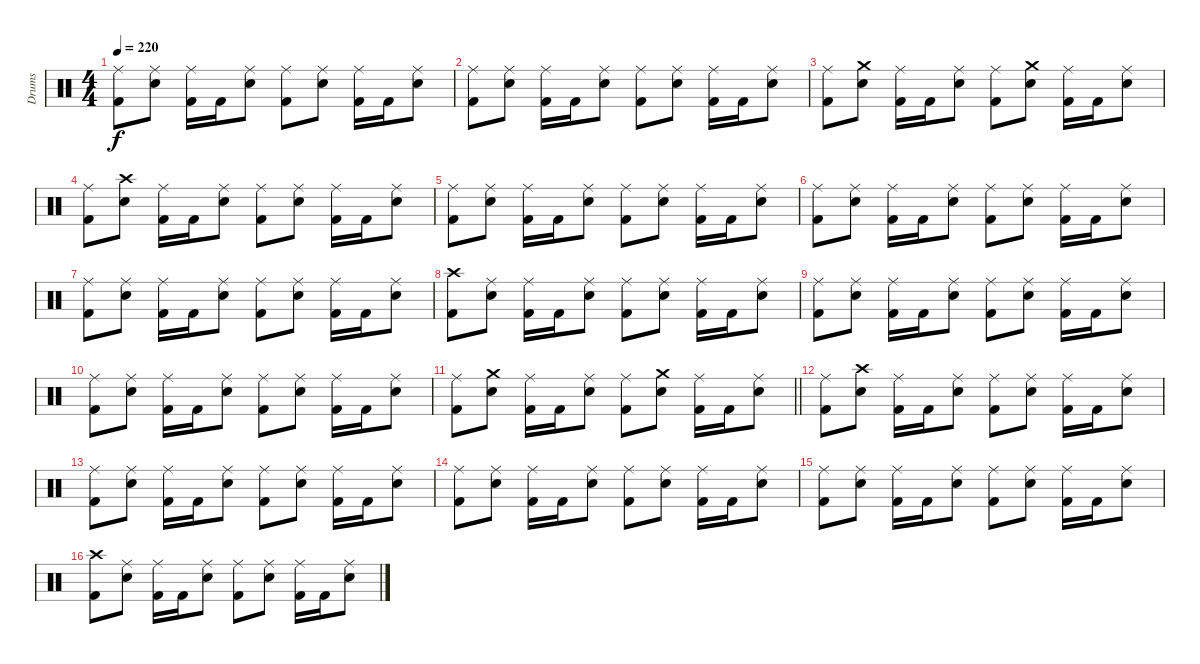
\track ("Drums" "Drums") {instrument percussion}
\staff {score}
\articulation defaults
\ts (4 4)
\tempo 220
\clef neutral
\ks c
("Ride (middle)" "Kick (hit) 2").8{dy f} ("Ride (middle)" "Snare (hit) 2").8 ("Ride (middle)" "Kick (hit) 2").16 "Kick (hit) 2".16 ("Ride (middle)" "Snare (hit) 2").8 ("Ride (middle)" "Kick (hit) 2").8 ("Ride (middle)" "Snare (hit) 2").8 ("Ride (middle)" "Kick (hit) 2").16 "Kick (hit) 2".16 ("Ride (middle)" "Snare (hit) 2").8 |
("Ride (middle)" "Kick (hit) 2").8 ("Ride (middle)" "Snare (hit) 2").8 ("Ride (middle)" "Kick (hit) 2").16 "Kick (hit) 2".16 ("Ride (middle)" "Snare (hit) 2").8 ("Ride (middle)" "Kick (hit) 2").8 ("Ride (middle)" "Snare (hit) 2").8 ("Ride (middle)" "Kick (hit) 2").16 "Kick (hit) 2".16 ("Ride (middle)" "Snare (hit) 2").8 |
("Ride (middle)" "Kick (hit) 2").8 ("Crash medium (hit)" "Snare (hit) 2").8 ("Ride (middle)" "Kick (hit) 2").16 "Kick (hit) 2".16 ("Ride (middle)" "Snare (hit) 2").8 ("Ride (middle)" "Kick (hit) 2").8 ("Crash medium (hit)" "Snare (hit) 2").8 ("Ride (middle)" "Kick (hit) 2").16 "Kick (hit) 2".16 ("Ride (middle)" "Snare (hit) 2").8 |
("Ride (middle)" "Kick (hit) 2").8 ("Crash high (hit)" "Snare (hit) 2").8 ("Ride (middle)" "Kick (hit) 2").16 "Kick (hit) 2".16 ("Ride (middle)" "Snare (hit) 2").8 ("Ride (middle)" "Kick (hit) 2").8 ("Ride (middle)" "Snare (hit) 2").8 ("Ride (middle)" "Kick (hit) 2").16 "Kick (hit) 2".16 ("Ride (middle)" "Snare (hit) 2").8 |
("Ride (middle)" "Kick (hit) 2").8 ("Ride (middle)" "Snare (hit) 2").8 ("Ride (middle)" "Kick (hit) 2").16 "Kick (hit) 2".16 ("Ride (middle)" "Snare (hit) 2").8 ("Ride (middle)" "Kick (hit) 2").8 ("Ride (middle)" "Snare (hit) 2").8 ("Ride (middle)" "Kick (hit) 2").16 "Kick (hit) 2".16 ("Ride (middle)" "Snare (hit) 2").8 |
("Ride (middle)" "Kick (hit) 2").8 ("Ride (middle)" "Snare (hit) 2").8 ("Ride (middle)" "Kick (hit) 2").16 "Kick (hit) 2".16 ("Ride (middle)" "Snare (hit) 2").8 ("Ride (middle)" "Kick (hit) 2").8 ("Ride (middle)" "Snare (hit) 2").8 ("Ride (middle)" "Kick (hit) 2").16 "Kick (hit) 2".16 ("Ride (middle)" "Snare (hit) 2").8 |
("Ride (middle)" "Kick (hit) 2").8 ("Ride (middle)" "Snare (hit) 2").8 ("Ride (middle)" "Kick (hit) 2").16 "Kick (hit) 2".16 ("Ride (middle)" "Snare (hit) 2").8 ("Ride (middle)" "Kick (hit) 2").8 ("Ride (middle)" "Snare (hit) 2").8 ("Ride (middle)" "Kick (hit) 2").16 "Kick (hit) 2".16 ("Ride (middle)" "Snare (hit) 2").8 |
("Crash high (hit)" "Kick (hit) 2").8 ("Ride (middle)" "Snare (hit) 2").8 ("Ride (middle)" "Kick (hit) 2").16 "Kick (hit) 2".16 ("Ride (middle)" "Snare (hit) 2").8 ("Ride (middle)" "Kick (hit) 2").8 ("Ride (middle)" "Snare (hit) 2").8 ("Ride (middle)" "Kick (hit) 2").16 "Kick (hit) 2".16 ("Ride (middle)" "Snare (hit) 2").8 |
("Ride (middle)" "Kick (hit) 2").8 ("Ride (middle)" "Snare (hit) 2").8 ("Ride (middle)" "Kick (hit) 2").16 "Kick (hit) 2".16 ("Ride (middle)" "Snare (hit) 2").8 ("Ride (middle)" "Kick (hit) 2").8 ("Ride (middle)" "Snare (hit) 2").8 ("Ride (middle)" "Kick (hit) 2").16 "Kick (hit) 2".16 ("Ride (middle)" "Snare (hit) 2").8 |
("Ride (middle)" "Kick (hit) 2").8 ("Ride (middle)" "Snare (hit) 2").8 ("Ride (middle)" "Kick (hit) 2").16 "Kick (hit) 2".16 ("Ride (middle)" "Snare (hit) 2").8 ("Ride (middle)" "Kick (hit) 2").8 ("Ride (middle)" "Snare (hit) 2").8 ("Ride (middle)" "Kick (hit) 2").16 "Kick (hit) 2".16 ("Ride (middle)" "Snare (hit) 2").8 |
\barLineRight lightlight
("Ride (middle)" "Kick (hit) 2").8 ("Crash medium (hit)" "Snare (hit) 2").8 ("Ride (middle)" "Kick (hit) 2").16 "Kick (hit) 2".16 ("Ride (middle)" "Snare (hit) 2").8 ("Ride (middle)" "Kick (hit) 2").8 ("Crash medium (hit)" "Snare (hit) 2").8 ("Ride (middle)" "Kick (hit) 2").16 "Kick (hit) 2".16 ("Ride (middle)" "Snare (hit) 2").8 |
\section ("" "")
("Ride (middle)" "Kick (hit) 2").8 ("Crash high (hit)" "Snare (hit) 2").8 ("Ride (middle)" "Kick (hit) 2").16 "Kick (hit) 2".16 ("Ride (middle)" "Snare (hit) 2").8 ("Ride (middle)" "Kick (hit) 2").8 ("Ride (middle)" "Snare (hit) 2").8 ("Ride (middle)" "Kick (hit) 2").16 "Kick (hit) 2".16 ("Ride (middle)" "Snare (hit) 2").8 |
("Ride (middle)" "Kick (hit) 2").8 ("Ride (middle)" "Snare (hit) 2").8 ("Ride (middle)" "Kick (hit) 2").16 "Kick (hit) 2".16 ("Ride (middle)" "Snare (hit) 2").8 ("Ride (middle)" "Kick (hit) 2").8 ("Ride (middle)" "Snare (hit) 2").8 ("Ride (middle)" "Kick (hit) 2").16 "Kick (hit) 2".16 ("Ride (middle)" "Snare (hit) 2").8 |
("Ride (middle)" "Kick (hit) 2").8 ("Ride (middle)" "Snare (hit) 2").8 ("Ride (middle)" "Kick (hit) 2").16 "Kick (hit) 2".16 ("Ride (middle)" "Snare (hit) 2").8 ("Ride (middle)" "Kick (hit) 2").8 ("Ride (middle)" "Snare (hit) 2").8 ("Ride (middle)" "Kick (hit) 2").16 "Kick (hit) 2".16 ("Ride (middle)" "Snare (hit) 2").8 |
("Ride (middle)" "Kick (hit) 2").8 ("Ride (middle)" "Snare (hit) 2").8 ("Ride (middle)" "Kick (hit) 2").16 "Kick (hit) 2".16 ("Ride (middle)" "Snare (hit) 2").8 ("Ride (middle)" "Kick (hit) 2").8 ("Ride (middle)" "Snare (hit) 2").8 ("Ride (middle)" "Kick (hit) 2").16 "Kick (hit) 2".16 ("Ride (middle)" "Snare (hit) 2").8 |
("Crash high (hit)" "Kick (hit) 2").8 ("Ride (middle)" "Snare (hit) 2").8 ("Ride (middle)" "Kick (hit) 2").16 "Kick (hit) 2".16 ("Ride (middle)" "Snare (hit) 2").8 ("Ride (middle)" "Kick (hit) 2").8 ("Ride (middle)" "Snare (hit) 2").8 ("Ride (middle)" "Kick (hit) 2").16 "Kick (hit) 2".16 ("Ride (middle)" "Snare (hit) 2").8
